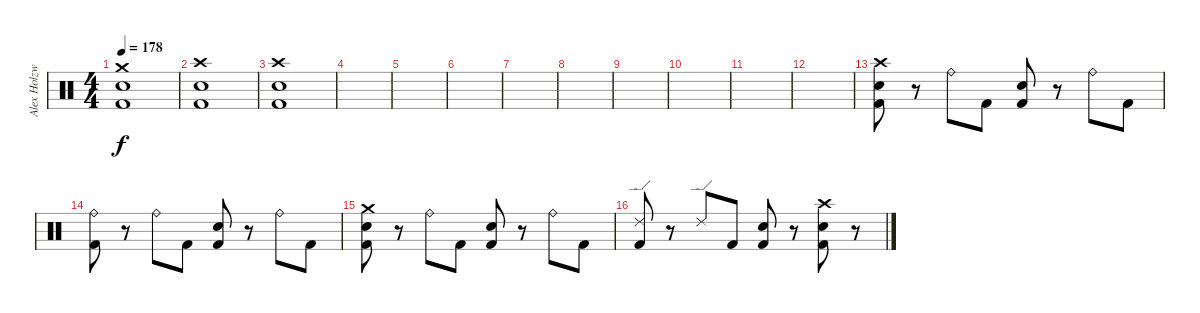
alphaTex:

\track ("Alex Holzwarth" "Alex Holzw") {instrument percussion}
\staff {score}
\articulation defaults
\ts (4 4)
\tempo 178
\clef neutral
\ks c
("Crash medium (hit)" "Snare (hit) 2" "Kick (hit) 2").1{dy f} |
("Crash high (hit)" "Snare (hit) 2" "Kick (hit) 2").1 |
("Crash high (hit)" "Snare (hit) 2" "Kick (hit) 2").1 |
|
|
|
|
|
|
|
|
|
("Crash high (hit)" "Snare (hit) 2" "Kick (hit) 2").8 r.8 "Ride (bell)".8 "Kick (hit) 2".8 ("Snare (hit) 2" "Kick (hit) 2").8 r.8 "Ride (bell)".8 "Kick (hit) 2".8 |
("Ride (bell)" "Kick (hit) 2").8 r.8 "Ride (bell)".8 "Kick (hit) 2".8 ("Snare (hit) 2" "Kick (hit) 2").8 r.8 "Ride (bell)".8 "Kick (hit) 2".8 |
("Crash medium (hit)" "Snare (hit) 2" "Kick (hit) 2").8 r.8 "Ride (bell)".8 "Kick (hit) 2".8 ("Snare (hit) 2" "Kick (hit) 2").8 r.8 "Ride (bell)".8 "Kick (hit) 2".8 |
("Ride (edge) 2" "Kick (hit) 2").8 r.8 "Ride (edge) 2".8 "Kick (hit) 2".8 ("Snare (hit) 2" "Kick (hit) 2").8 r.8 ("Crash high (hit)" "Snare (hit) 2" "Kick (hit) 2").8 r.8
